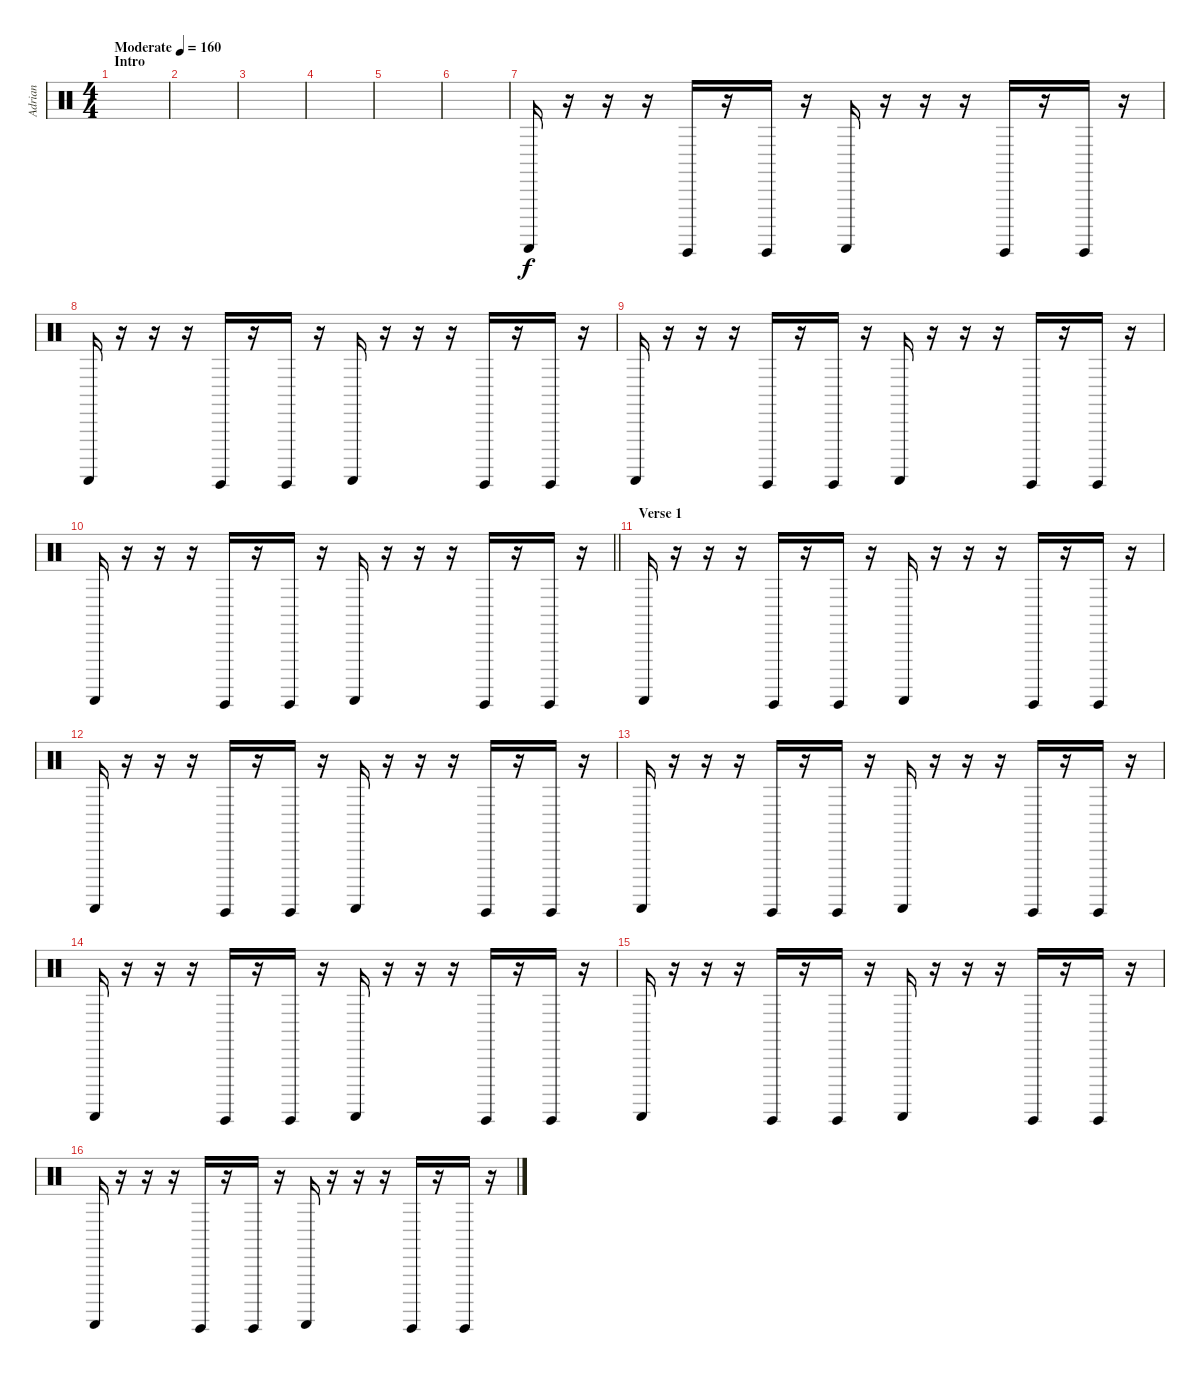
\track ("Adrian" "Adrian") {instrument percussion}
\staff {score}
\articulation defaults
\ts (4 4)
\section ("" "Intro")
\tempo (160 "Moderate")
\clef neutral
\ks c
|
|
|
|
|
|
"Guiro (scrap-return)".16 r.16 r.16 r.16 "Guiro (hit)".16 r.16 "Guiro (hit)".16 r.16 "Guiro (scrap-return)".16 r.16 r.16 r.16 "Guiro (hit)".16 r.16 "Guiro (hit)".16 r.16 |
"Guiro (scrap-return)".16 r.16 r.16 r.16 "Guiro (hit)".16 r.16 "Guiro (hit)".16 r.16 "Guiro (scrap-return)".16 r.16 r.16 r.16 "Guiro (hit)".16 r.16 "Guiro (hit)".16 r.16 |
"Guiro (scrap-return)".16 r.16 r.16 r.16 "Guiro (hit)".16 r.16 "Guiro (hit)".16 r.16 "Guiro (scrap-return)".16 r.16 r.16 r.16 "Guiro (hit)".16 r.16 "Guiro (hit)".16 r.16 |
\barLineRight lightlight "Guiro (scrap-return)".16
r.16 r.16 r.16 "Guiro (hit)".16 r.16 "Guiro (hit)".16 r.16 "Guiro (scrap-return)".16 r.16 r.16 r.16 "Guiro (hit)".16 r.16 "Guiro (hit)".16 r.16 |
\section ("" "Verse 1")
"Guiro (scrap-return)".16 r.16 r.16 r.16 "Guiro (hit)".16 r.16 "Guiro (hit)".16 r.16 "Guiro (scrap-return)".16 r.16 r.16 r.16 "Guiro (hit)".16 r.16 "Guiro (hit)".16 r.16 |
"Guiro (scrap-return)".16 r.16 r.16 r.16 "Guiro (hit)".16 r.16 "Guiro (hit)".16 r.16 "Guiro (scrap-return)".16 r.16 r.16 r.16 "Guiro (hit)".16 r.16 "Guiro (hit)".16 r.16 |
"Guiro (scrap-return)".16 r.16 r.16 r.16 "Guiro (hit)".16 r.16 "Guiro (hit)".16 r.16 "Guiro (scrap-return)".16 r.16 r.16 r.16 "Guiro (hit)".16 r.16 "Guiro (hit)".16 r.16 |
"Guiro (scrap-return)".16 r.16 r.16 r.16 "Guiro (hit)".16 r.16 "Guiro (hit)".16 r.16 "Guiro (scrap-return)".16 r.16 r.16 r.16 "Guiro (hit)".16 r.16 "Guiro (hit)".16 r.16 |
"Guiro (scrap-return)".16 r.16 r.16 r.16 "Guiro (hit)".16 r.16 "Guiro (hit)".16 r.16 "Guiro (scrap-return)".16 r.16 r.16 r.16 "Guiro (hit)".16 r.16 "Guiro (hit)".16 r.16 |
"Guiro (scrap-return)".16 r.16 r.16 r.16 "Guiro (hit)".16 r.16 "Guiro (hit)".16 r.16 "Guiro (scrap-return)".16 r.16 r.16 r.16 "Guiro (hit)".16 r.16 "Guiro (hit)".16 r.16
